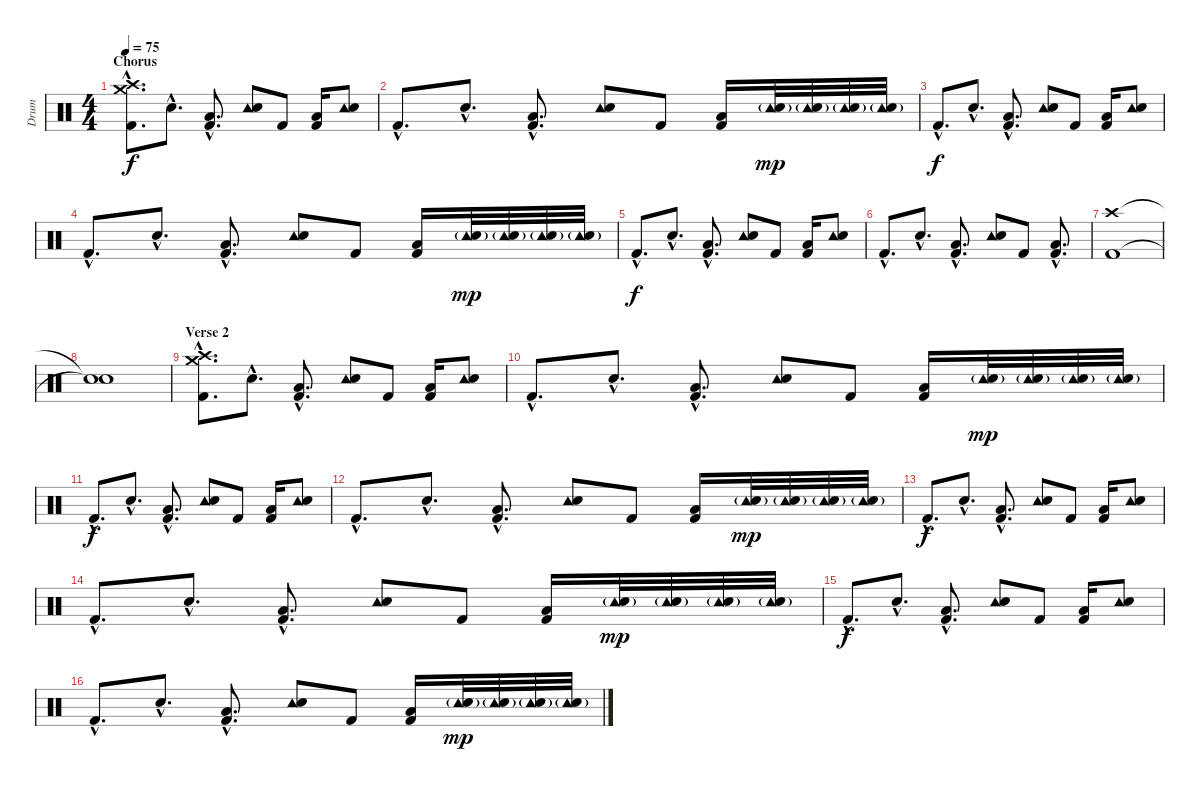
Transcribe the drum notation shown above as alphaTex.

\track ("Drum" "Drum") {instrument percussion}
\staff {score}
\articulation defaults
\ts (4 4)
\section ("" "Chorus")
\tempo 75
\clef neutral
\ks c
("Crash high (hit)"{hac} "Crash medium (hit)"{hac} "Kick (hit) 2"{hac}).8{d dy f} "Snare (hit) 2"{hac}.8{d} ("Low Floor Tom (hit)"{hac} "Kick (hit) 2"{hac}).8{d} ("Tambourine (hit)" "Snare (hit) 2").8 "Kick (hit) 2".8 ("Low Tom (hit)" "Kick (hit) 2").16 ("Tambourine (hit)" "Snare (hit) 2").8 |
"Kick (hit) 2"{hac}.8{d} "Snare (hit) 2"{hac}.8{d} ("Low Floor Tom (hit)"{hac} "Kick (hit) 2"{hac}).8{d} ("Tambourine (hit)" "Snare (hit) 2").8 "Kick (hit) 2".8 ("Low Tom (hit)" "Kick (hit) 2").16 ("Tambourine (hit)" "Electric Snare (hit)"{g}).32{dy mp} ("Tambourine (hit)" "Electric Snare (hit)"{g}).32 ("Tambourine (hit)" "Electric Snare (hit)"{g}).32 ("Tambourine (hit)" "Electric Snare (hit)"{g}).32 |
"Kick (hit) 2"{hac}.8{d dy f} "Snare (hit) 2"{hac}.8{d} ("Low Floor Tom (hit)"{hac} "Kick (hit) 2"{hac}).8{d} ("Tambourine (hit)" "Snare (hit) 2").8 "Kick (hit) 2".8 ("Low Tom (hit)" "Kick (hit) 2").16 ("Tambourine (hit)" "Snare (hit) 2").8 |
"Kick (hit) 2"{hac}.8{d} "Snare (hit) 2"{hac}.8{d} ("Low Floor Tom (hit)"{hac} "Kick (hit) 2"{hac}).8{d} ("Tambourine (hit)" "Snare (hit) 2").8 "Kick (hit) 2".8 ("Low Tom (hit)" "Kick (hit) 2").16 ("Tambourine (hit)" "Electric Snare (hit)"{g}).32{dy mp} ("Tambourine (hit)" "Electric Snare (hit)"{g}).32 ("Tambourine (hit)" "Electric Snare (hit)"{g}).32 ("Tambourine (hit)" "Electric Snare (hit)"{g}).32 |
"Kick (hit) 2"{hac}.8{d dy f} "Snare (hit) 2"{hac}.8{d} ("Low Floor Tom (hit)"{hac} "Kick (hit) 2"{hac}).8{d} ("Tambourine (hit)" "Snare (hit) 2").8 "Kick (hit) 2".8 ("Low Tom (hit)" "Kick (hit) 2").16 ("Tambourine (hit)" "Snare (hit) 2").8 |
"Kick (hit) 2"{hac}.8{d} "Snare (hit) 2"{hac}.8{d} ("Low Floor Tom (hit)"{hac} "Kick (hit) 2"{hac}).8{d} ("Tambourine (hit)" "Snare (hit) 2").8 "Kick (hit) 2".8 ("Low Tom (hit)"{hac} "Kick (hit) 2"{hac}).8{d} |
("Crash high (hit)" "Kick (hit) 2").1 |
("Snare (hit)"{t} "Snare (hit)"{t}).1 |
\section ("" "Verse 2")
("Crash high (hit)"{hac} "Crash medium (hit)"{hac} "Kick (hit) 2"{hac}).8{d} "Snare (hit) 2"{hac}.8{d} ("Low Floor Tom (hit)"{hac} "Kick (hit) 2"{hac}).8{d} ("Tambourine (hit)" "Snare (hit) 2").8 "Kick (hit) 2".8 ("Low Tom (hit)" "Kick (hit) 2").16 ("Tambourine (hit)" "Snare (hit) 2").8 |
"Kick (hit) 2"{hac}.8{d} "Snare (hit) 2"{hac}.8{d} ("Low Floor Tom (hit)"{hac} "Kick (hit) 2"{hac}).8{d} ("Tambourine (hit)" "Snare (hit) 2").8 "Kick (hit) 2".8 ("Low Tom (hit)" "Kick (hit) 2").16 ("Tambourine (hit)" "Electric Snare (hit)"{g}).32{dy mp} ("Tambourine (hit)" "Electric Snare (hit)"{g}).32 ("Tambourine (hit)" "Electric Snare (hit)"{g}).32 ("Tambourine (hit)" "Electric Snare (hit)"{g}).32 |
"Kick (hit) 2"{hac}.8{d dy f} "Snare (hit) 2"{hac}.8{d} ("Low Floor Tom (hit)"{hac} "Kick (hit) 2"{hac}).8{d} ("Tambourine (hit)" "Snare (hit) 2").8 "Kick (hit) 2".8 ("Low Tom (hit)" "Kick (hit) 2").16 ("Tambourine (hit)" "Snare (hit) 2").8 |
"Kick (hit) 2"{hac}.8{d} "Snare (hit) 2"{hac}.8{d} ("Low Floor Tom (hit)"{hac} "Kick (hit) 2"{hac}).8{d} ("Tambourine (hit)" "Snare (hit) 2").8 "Kick (hit) 2".8 ("Low Tom (hit)" "Kick (hit) 2").16 ("Tambourine (hit)" "Electric Snare (hit)"{g}).32{dy mp} ("Tambourine (hit)" "Electric Snare (hit)"{g}).32 ("Tambourine (hit)" "Electric Snare (hit)"{g}).32 ("Tambourine (hit)" "Electric Snare (hit)"{g}).32 |
"Kick (hit) 2"{hac}.8{d dy f} "Snare (hit) 2"{hac}.8{d} ("Low Floor Tom (hit)"{hac} "Kick (hit) 2"{hac}).8{d} ("Tambourine (hit)" "Snare (hit) 2").8 "Kick (hit) 2".8 ("Low Tom (hit)" "Kick (hit) 2").16 ("Tambourine (hit)" "Snare (hit) 2").8 |
"Kick (hit) 2"{hac}.8{d} "Snare (hit) 2"{hac}.8{d} ("Low Floor Tom (hit)"{hac} "Kick (hit) 2"{hac}).8{d} ("Tambourine (hit)" "Snare (hit) 2").8 "Kick (hit) 2".8 ("Low Tom (hit)" "Kick (hit) 2").16 ("Tambourine (hit)" "Electric Snare (hit)"{g}).32{dy mp} ("Tambourine (hit)" "Electric Snare (hit)"{g}).32 ("Tambourine (hit)" "Electric Snare (hit)"{g}).32 ("Tambourine (hit)" "Electric Snare (hit)"{g}).32 |
"Kick (hit) 2"{hac}.8{d dy f} "Snare (hit) 2"{hac}.8{d} ("Low Floor Tom (hit)"{hac} "Kick (hit) 2"{hac}).8{d} ("Tambourine (hit)" "Snare (hit) 2").8 "Kick (hit) 2".8 ("Low Tom (hit)" "Kick (hit) 2").16 ("Tambourine (hit)" "Snare (hit) 2").8 |
"Kick (hit) 2"{hac}.8{d} "Snare (hit) 2"{hac}.8{d} ("Low Floor Tom (hit)"{hac} "Kick (hit) 2"{hac}).8{d} ("Tambourine (hit)" "Snare (hit) 2").8 "Kick (hit) 2".8 ("Low Tom (hit)" "Kick (hit) 2").16 ("Tambourine (hit)" "Electric Snare (hit)"{g}).32{dy mp} ("Tambourine (hit)" "Electric Snare (hit)"{g}).32 ("Tambourine (hit)" "Electric Snare (hit)"{g}).32 ("Tambourine (hit)" "Electric Snare (hit)"{g}).32
